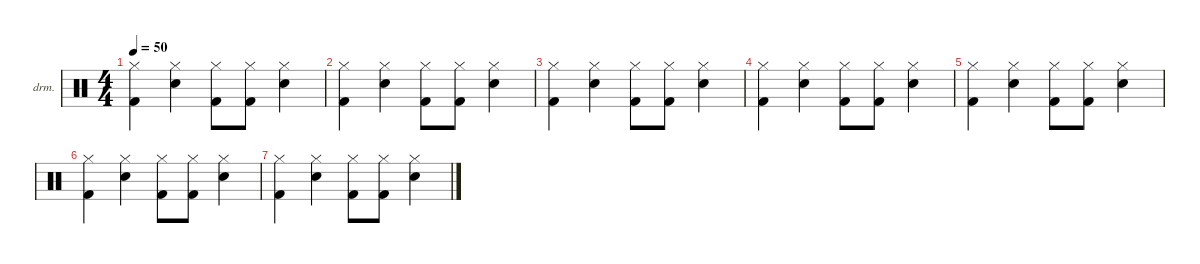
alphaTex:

\defaultSystemsLayout 4
\hideDynamics
\bracketExtendMode nobrackets
\firstSystemTrackNameOrientation horizontal
\otherSystemsTrackNameOrientation horizontal
\track ("Drumkit" "drm.") {instrument percussion}
\staff {score}
\articulation defaults
\ts (4 4)
\tempo 50
\clef neutral
\ks c
("Kick (hit) 2" "Hi-Hat (closed)").4{dy mf beam Down} ("Snare (hit) 2" "Hi-Hat (closed)").4{beam Down} ("Kick (hit) 2" "Hi-Hat (closed)").8{beam Down} ("Kick (hit) 2" "Hi-Hat (closed)").8{beam Down} ("Snare (hit) 2" "Hi-Hat (closed)").4{beam Down} |
("Kick (hit) 2" "Hi-Hat (closed)").4{beam Down} ("Snare (hit) 2" "Hi-Hat (closed)").4{beam Down} ("Kick (hit) 2" "Hi-Hat (closed)").8{beam Down} ("Kick (hit) 2" "Hi-Hat (closed)").8{beam Down} ("Snare (hit) 2" "Hi-Hat (closed)").4{beam Down} |
("Kick (hit) 2" "Hi-Hat (closed)").4{beam Down} ("Snare (hit) 2" "Hi-Hat (closed)").4{beam Down} ("Kick (hit) 2" "Hi-Hat (closed)").8{beam Down} ("Kick (hit) 2" "Hi-Hat (closed)").8{beam Down} ("Snare (hit) 2" "Hi-Hat (closed)").4{beam Down} |
("Kick (hit) 2" "Hi-Hat (closed)").4{beam Down} ("Snare (hit) 2" "Hi-Hat (closed)").4{beam Down} ("Kick (hit) 2" "Hi-Hat (closed)").8{beam Down} ("Kick (hit) 2" "Hi-Hat (closed)").8{beam Down} ("Snare (hit) 2" "Hi-Hat (closed)").4{beam Down} |
("Kick (hit) 2" "Hi-Hat (closed)").4{beam Down} ("Snare (hit) 2" "Hi-Hat (closed)").4{beam Down} ("Kick (hit) 2" "Hi-Hat (closed)").8{beam Down} ("Kick (hit) 2" "Hi-Hat (closed)").8{beam Down} ("Snare (hit) 2" "Hi-Hat (closed)").4{beam Down} |
("Kick (hit) 2" "Hi-Hat (closed)").4{beam Down} ("Snare (hit) 2" "Hi-Hat (closed)").4{beam Down} ("Kick (hit) 2" "Hi-Hat (closed)").8{beam Down} ("Kick (hit) 2" "Hi-Hat (closed)").8{beam Down} ("Snare (hit) 2" "Hi-Hat (closed)").4{beam Down} |
("Kick (hit) 2" "Hi-Hat (closed)").4{beam Down} ("Snare (hit) 2" "Hi-Hat (closed)").4{beam Down} ("Kick (hit) 2" "Hi-Hat (closed)").8{beam Down} ("Kick (hit) 2" "Hi-Hat (closed)").8{beam Down} ("Snare (hit) 2" "Hi-Hat (closed)").4{beam Down}
